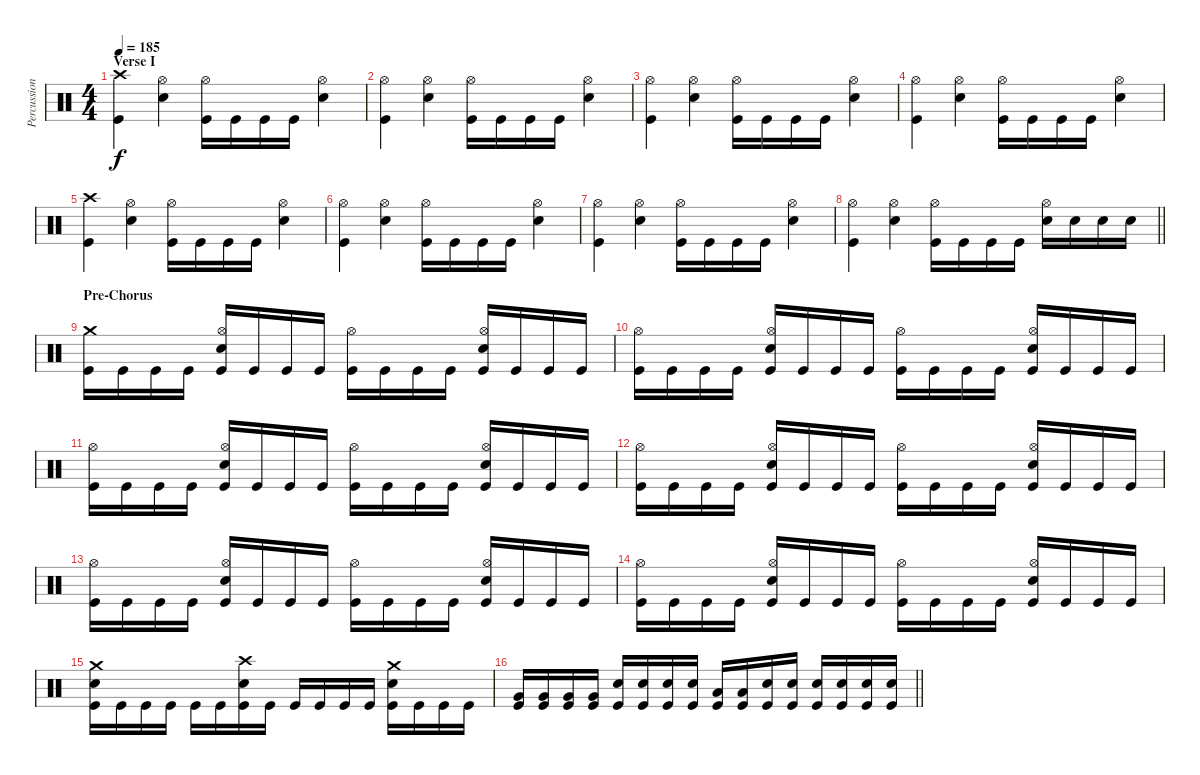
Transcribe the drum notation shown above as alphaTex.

\track ("Percussion" "Percussion") {instrument percussion}
\staff {score}
\articulation defaults
\ts (4 4)
\section ("" "Verse I")
\tempo 185
\clef neutral
\ks c
("Crash high (hit)" "Kick (hit)").4{dy f} ("Hi-Hat (open)" "Electric Snare (hit)").4 ("Hi-Hat (open)" "Kick (hit)").16 "Kick (hit)".16 "Kick (hit)".16 "Kick (hit)".16 ("Hi-Hat (open)" "Electric Snare (hit)").4 |
("Hi-Hat (open)" "Kick (hit)").4 ("Hi-Hat (open)" "Electric Snare (hit)").4 ("Hi-Hat (open)" "Kick (hit)").16 "Kick (hit)".16 "Kick (hit)".16 "Kick (hit)".16 ("Hi-Hat (open)" "Electric Snare (hit)").4 |
("Hi-Hat (open)" "Kick (hit)").4 ("Hi-Hat (open)" "Electric Snare (hit)").4 ("Hi-Hat (open)" "Kick (hit)").16 "Kick (hit)".16 "Kick (hit)".16 "Kick (hit)".16 ("Hi-Hat (open)" "Electric Snare (hit)").4 |
("Hi-Hat (open)" "Kick (hit)").4 ("Hi-Hat (open)" "Electric Snare (hit)").4 ("Hi-Hat (open)" "Kick (hit)").16 "Kick (hit)".16 "Kick (hit)".16 "Kick (hit)".16 ("Hi-Hat (open)" "Electric Snare (hit)").4 |
("Crash high (hit)" "Kick (hit)").4 ("Hi-Hat (open)" "Electric Snare (hit)").4 ("Hi-Hat (open)" "Kick (hit)").16 "Kick (hit)".16 "Kick (hit)".16 "Kick (hit)".16 ("Hi-Hat (open)" "Electric Snare (hit)").4 |
("Hi-Hat (open)" "Kick (hit)").4 ("Hi-Hat (open)" "Electric Snare (hit)").4 ("Hi-Hat (open)" "Kick (hit)").16 "Kick (hit)".16 "Kick (hit)".16 "Kick (hit)".16 ("Hi-Hat (open)" "Electric Snare (hit)").4 |
("Hi-Hat (open)" "Kick (hit)").4 ("Hi-Hat (open)" "Electric Snare (hit)").4 ("Hi-Hat (open)" "Kick (hit)").16 "Kick (hit)".16 "Kick (hit)".16 "Kick (hit)".16 ("Hi-Hat (open)" "Electric Snare (hit)").4 |
\barLineRight lightlight
("Hi-Hat (open)" "Kick (hit)").4 ("Hi-Hat (open)" "Electric Snare (hit)").4 ("Hi-Hat (open)" "Kick (hit)").16 "Kick (hit)".16 "Kick (hit)".16 "Kick (hit)".16 ("Hi-Hat (open)" "Electric Snare (hit)").16 "Electric Snare (hit)".16 "Electric Snare (hit)".16 "Electric Snare (hit)".16 |
\section ("" "Pre-Chorus")
("Crash medium (hit)" "Kick (hit)").16 "Kick (hit)".16 "Kick (hit)".16 "Kick (hit)".16 ("Hi-Hat (open)" "Electric Snare (hit)" "Kick (hit)").16 "Kick (hit)".16 "Kick (hit)".16 "Kick (hit)".16 ("Hi-Hat (open)" "Kick (hit)").16 "Kick (hit)".16 "Kick (hit)".16 "Kick (hit)".16 ("Hi-Hat (open)" "Electric Snare (hit)" "Kick (hit)").16 "Kick (hit)".16 "Kick (hit)".16 "Kick (hit)".16 |
("Hi-Hat (open)" "Kick (hit)").16 "Kick (hit)".16 "Kick (hit)".16 "Kick (hit)".16 ("Hi-Hat (open)" "Electric Snare (hit)" "Kick (hit)").16 "Kick (hit)".16 "Kick (hit)".16 "Kick (hit)".16 ("Hi-Hat (open)" "Kick (hit)").16 "Kick (hit)".16 "Kick (hit)".16 "Kick (hit)".16 ("Hi-Hat (open)" "Electric Snare (hit)" "Kick (hit)").16 "Kick (hit)".16 "Kick (hit)".16 "Kick (hit)".16 |
("Hi-Hat (open)" "Kick (hit)").16 "Kick (hit)".16 "Kick (hit)".16 "Kick (hit)".16 ("Hi-Hat (open)" "Electric Snare (hit)" "Kick (hit)").16 "Kick (hit)".16 "Kick (hit)".16 "Kick (hit)".16 ("Hi-Hat (open)" "Kick (hit)").16 "Kick (hit)".16 "Kick (hit)".16 "Kick (hit)".16 ("Hi-Hat (open)" "Electric Snare (hit)" "Kick (hit)").16 "Kick (hit)".16 "Kick (hit)".16 "Kick (hit)".16 |
("Hi-Hat (open)" "Kick (hit)").16 "Kick (hit)".16 "Kick (hit)".16 "Kick (hit)".16 ("Hi-Hat (open)" "Electric Snare (hit)" "Kick (hit)").16 "Kick (hit)".16 "Kick (hit)".16 "Kick (hit)".16 ("Hi-Hat (open)" "Kick (hit)").16 "Kick (hit)".16 "Kick (hit)".16 "Kick (hit)".16 ("Hi-Hat (open)" "Electric Snare (hit)" "Kick (hit)").16 "Kick (hit)".16 "Kick (hit)".16 "Kick (hit)".16 |
("Hi-Hat (open)" "Kick (hit)").16 "Kick (hit)".16 "Kick (hit)".16 "Kick (hit)".16 ("Hi-Hat (open)" "Electric Snare (hit)" "Kick (hit)").16 "Kick (hit)".16 "Kick (hit)".16 "Kick (hit)".16 ("Hi-Hat (open)" "Kick (hit)").16 "Kick (hit)".16 "Kick (hit)".16 "Kick (hit)".16 ("Hi-Hat (open)" "Electric Snare (hit)" "Kick (hit)").16 "Kick (hit)".16 "Kick (hit)".16 "Kick (hit)".16 |
("Hi-Hat (open)" "Kick (hit)").16 "Kick (hit)".16 "Kick (hit)".16 "Kick (hit)".16 ("Hi-Hat (open)" "Electric Snare (hit)" "Kick (hit)").16 "Kick (hit)".16 "Kick (hit)".16 "Kick (hit)".16 ("Hi-Hat (open)" "Kick (hit)").16 "Kick (hit)".16 "Kick (hit)".16 "Kick (hit)".16 ("Hi-Hat (open)" "Electric Snare (hit)" "Kick (hit)").16 "Kick (hit)".16 "Kick (hit)".16 "Kick (hit)".16 |
("Crash medium (hit)" "Electric Snare (hit)" "Kick (hit)").16 "Kick (hit)".16 "Kick (hit)".16 "Kick (hit)".16 "Kick (hit)".16 "Kick (hit)".16 ("Crash high (hit)" "Electric Snare (hit)" "Kick (hit)").16 "Kick (hit)".16 "Kick (hit)".16 "Kick (hit)".16 "Kick (hit)".16 "Kick (hit)".16 ("Crash medium (hit)" "Electric Snare (hit)" "Kick (hit)").16 "Kick (hit)".16 "Kick (hit)".16 "Kick (hit)".16 |
\barLineRight lightlight
("Very Low Tom (hit)" "Kick (hit)").16 ("Very Low Tom (hit)" "Kick (hit)").16 ("Very Low Tom (hit)" "Kick (hit)").16 ("Very Low Tom (hit)" "Kick (hit)").16 ("Electric Snare (hit)" "Kick (hit)").16 ("Electric Snare (hit)" "Kick (hit)").16 ("Electric Snare (hit)" "Kick (hit)").16 ("Electric Snare (hit)" "Kick (hit)").16 ("Low Tom (hit)" "Kick (hit)").16 ("Low Tom (hit)" "Kick (hit)").16 ("Electric Snare (hit)" "Kick (hit)").16 ("Electric Snare (hit)" "Kick (hit)").16 ("Electric Snare (hit)" "Kick (hit)").16 ("Electric Snare (hit)" "Kick (hit)").16 ("Electric Snare (hit)" "Kick (hit)").16 ("Electric Snare (hit)" "Kick (hit)").16
